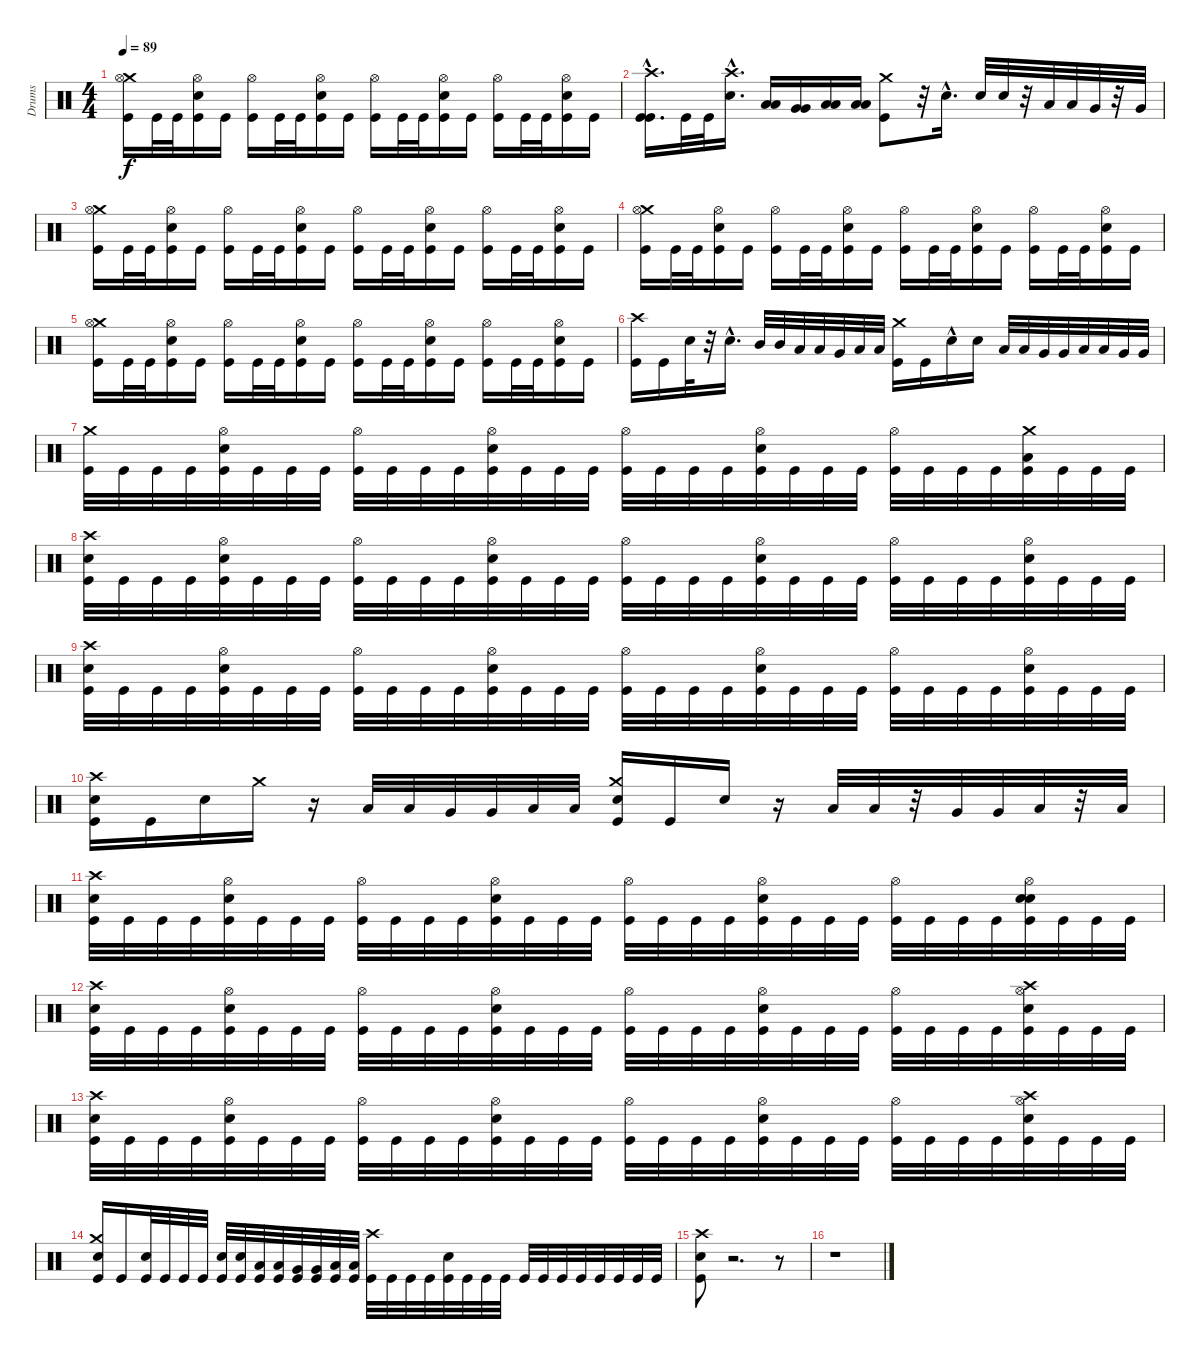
\track ("Drums" "Drums") {instrument percussion}
\staff {score}
\articulation defaults
\ts (4 4)
\tempo 89
\clef neutral
\ks c
("Kick (hit)" "Crash medium (hit)" "Hi-Hat (open)").16{dy f} "Kick (hit)".32 "Kick (hit)".32 ("Hi-Hat (open)" "Snare (hit) 2" "Kick (hit)").16 "Kick (hit)".16 ("Hi-Hat (open)" "Kick (hit)").16 "Kick (hit)".32 "Kick (hit)".32 ("Hi-Hat (open)" "Snare (hit) 2" "Kick (hit)").16 "Kick (hit)".16 ("Hi-Hat (open)" "Kick (hit)").16 "Kick (hit)".32 "Kick (hit)".32 ("Snare (hit) 2" "Hi-Hat (open)" "Kick (hit)").16 "Kick (hit)".16 ("Hi-Hat (open)" "Kick (hit)").16 "Kick (hit)".32 "Kick (hit)".32 ("Snare (hit) 2" "Hi-Hat (open)" "Kick (hit)").16 "Kick (hit)".16 |
("Kick (hit)"{hac} "Kick (hit)"{hac} "Crash high (hit)").16{d} "Kick (hit)".32 "Kick (hit)".32 ("Crash high (hit)" "Electric Snare (hit)"{hac}).16{d} ("Low Tom (hit)" "Low Tom (hit)").16 ("Very Low Tom (hit)" "Very Low Tom (hit)").16 ("Low Floor Tom (hit)" "Low Floor Tom (hit)").16 ("Low Floor Tom (hit)" "Low Floor Tom (hit)").16 ("Kick (hit)" "Crash medium (hit)").8 r.32 "Snare (hit) 2"{hac}.16{d} "Electric Snare (hit)".32 "Electric Snare (hit)".32 r.32 "Low Tom (hit)".32 "Low Tom (hit)".32 "Very Low Tom (hit)".32 r.32 "Very Low Tom (hit)".32 |
("Crash medium (hit)" "Hi-Hat (open)" "Kick (hit)").16 "Kick (hit)".32 "Kick (hit)".32 ("Hi-Hat (open)" "Snare (hit) 2" "Kick (hit)").16 "Kick (hit)".16 ("Hi-Hat (open)" "Kick (hit)").16 "Kick (hit)".32 "Kick (hit)".32 ("Hi-Hat (open)" "Snare (hit) 2" "Kick (hit)").16 "Kick (hit)".16 ("Hi-Hat (open)" "Kick (hit)").16 "Kick (hit)".32 "Kick (hit)".32 ("Snare (hit) 2" "Hi-Hat (open)" "Kick (hit)").16 "Kick (hit)".16 ("Hi-Hat (open)" "Kick (hit)").16 "Kick (hit)".32 "Kick (hit)".32 ("Snare (hit) 2" "Hi-Hat (open)" "Kick (hit)").16 "Kick (hit)".16 |
("Kick (hit)" "Crash medium (hit)" "Hi-Hat (open)").16 "Kick (hit)".32 "Kick (hit)".32 ("Hi-Hat (open)" "Snare (hit) 2" "Kick (hit)").16 "Kick (hit)".16 ("Hi-Hat (open)" "Kick (hit)").16 "Kick (hit)".32 "Kick (hit)".32 ("Hi-Hat (open)" "Snare (hit) 2" "Kick (hit)").16 "Kick (hit)".16 ("Hi-Hat (open)" "Kick (hit)").16 "Kick (hit)".32 "Kick (hit)".32 ("Snare (hit) 2" "Hi-Hat (open)" "Kick (hit)").16 "Kick (hit)".16 ("Hi-Hat (open)" "Kick (hit)").16 "Kick (hit)".32 "Kick (hit)".32 ("Snare (hit) 2" "Hi-Hat (open)" "Kick (hit)").16 "Kick (hit)".16 |
("Kick (hit)" "Crash medium (hit)" "Hi-Hat (open)").16 "Kick (hit)".32 "Kick (hit)".32 ("Hi-Hat (open)" "Snare (hit) 2" "Kick (hit)").16 "Kick (hit)".16 ("Hi-Hat (open)" "Kick (hit)").16 "Kick (hit)".32 "Kick (hit)".32 ("Hi-Hat (open)" "Snare (hit) 2" "Kick (hit)").16 "Kick (hit)".16 ("Hi-Hat (open)" "Kick (hit)").16 "Kick (hit)".32 "Kick (hit)".32 ("Snare (hit) 2" "Hi-Hat (open)" "Kick (hit)").16 "Kick (hit)".16 ("Hi-Hat (open)" "Kick (hit)").16 "Kick (hit)".32 "Kick (hit)".32 ("Snare (hit) 2" "Hi-Hat (open)" "Kick (hit)").16 "Kick (hit)".16 |
("Kick (hit)" "Crash high (hit)").16 "Kick (hit)".16 "Electric Snare (hit)".32 r.32 "Electric Snare (hit)"{hac}.16{d} "Mid Tom (hit)".32 "Mid Tom (hit)".32 "Low Tom (hit)".32 "Low Tom (hit)".32 "Very Low Tom (hit)".32 "Low Floor Tom (hit)".32 "Low Floor Tom (hit)".32 ("Kick (hit)" "Crash medium (hit)").16 "Kick (hit)".16 "Snare (hit) 2"{hac}.16 "Electric Snare (hit)".16 "Low Tom (hit)".32 "Low Tom (hit)".32 "Very Low Tom (hit)".32 "Very Low Tom (hit)".32 "Low Tom (hit)".32 "Low Tom (hit)".32 "Very Low Tom (hit)".32 "Very Low Tom (hit)".32 |
("Crash medium (hit)" "Kick (hit)").32{volume 15 balance 8} "Kick (hit)".32 "Kick (hit)".32 "Kick (hit)".32 ("Hi-Hat (open)" "Snare (hit) 2" "Kick (hit)").32 "Kick (hit)".32 "Kick (hit)".32 "Kick (hit)".32 ("Hi-Hat (open)" "Kick (hit)").32 "Kick (hit)".32 "Kick (hit)".32 "Kick (hit)".32 ("Kick (hit)" "Snare (hit) 2" "Hi-Hat (open)").32 "Kick (hit)".32 "Kick (hit)".32 "Kick (hit)".32 ("Hi-Hat (open)" "Kick (hit)").32 "Kick (hit)".32 "Kick (hit)".32 "Kick (hit)".32 ("Kick (hit)" "Hi-Hat (open)" "Snare (hit) 2").32 "Kick (hit)".32 "Kick (hit)".32 "Kick (hit)".32 ("Kick (hit)" "Hi-Hat (open)").32 "Kick (hit)".32 "Kick (hit)".32 "Kick (hit)".32 ("Crash medium (hit)" "Kick (hit)" "Low Tom (hit)").32 "Kick (hit)".32 "Kick (hit)".32 "Kick (hit)".32 |
("Crash high (hit)" "Snare (hit) 2" "Kick (hit)").32 "Kick (hit)".32 "Kick (hit)".32 "Kick (hit)".32 ("Hi-Hat (open)" "Snare (hit) 2" "Kick (hit)").32 "Kick (hit)".32 "Kick (hit)".32 "Kick (hit)".32 ("Hi-Hat (open)" "Kick (hit)").32 "Kick (hit)".32 "Kick (hit)".32 "Kick (hit)".32 ("Hi-Hat (open)" "Snare (hit) 2" "Kick (hit)").32 "Kick (hit)".32 "Kick (hit)".32 "Kick (hit)".32 ("Hi-Hat (open)" "Kick (hit)").32 "Kick (hit)".32 "Kick (hit)".32 "Kick (hit)".32 ("Hi-Hat (open)" "Snare (hit) 2" "Kick (hit)").32 "Kick (hit)".32 "Kick (hit)".32 "Kick (hit)".32 ("Hi-Hat (open)" "Kick (hit)").32 "Kick (hit)".32 "Kick (hit)".32 "Kick (hit)".32 ("Snare (hit) 2" "Hi-Hat (open)" "Kick (hit)").32 "Kick (hit)".32 "Kick (hit)".32 "Kick (hit)".32 |
("Kick (hit)" "Crash high (hit)" "Snare (hit) 2").32 "Kick (hit)".32 "Kick (hit)".32 "Kick (hit)".32 ("Kick (hit)" "Hi-Hat (open)" "Snare (hit) 2").32 "Kick (hit)".32 "Kick (hit)".32 "Kick (hit)".32 ("Kick (hit)" "Hi-Hat (open)").32 "Kick (hit)".32 "Kick (hit)".32 "Kick (hit)".32 ("Kick (hit)" "Snare (hit) 2" "Hi-Hat (open)").32 "Kick (hit)".32 "Kick (hit)".32 "Kick (hit)".32 ("Kick (hit)" "Hi-Hat (open)").32 "Kick (hit)".32 "Kick (hit)".32 "Kick (hit)".32 ("Kick (hit)" "Hi-Hat (open)" "Snare (hit) 2").32 "Kick (hit)".32 "Kick (hit)".32 "Kick (hit)".32 ("Kick (hit)" "Hi-Hat (open)").32 "Kick (hit)".32 "Kick (hit)".32 "Kick (hit)".32 ("Kick (hit)" "Hi-Hat (open)" "Snare (hit) 2").32 "Kick (hit)".32 "Kick (hit)".32 "Kick (hit)".32 |
("Kick (hit)" "Snare (hit) 2" "Crash high (hit)").16 "Kick (hit)".16 "Snare (hit) 2".16 "Crash medium (hit)".16 r.16 "Low Tom (hit)".32 "Low Tom (hit)".32 "Very Low Tom (hit)".32 "Very Low Tom (hit)".32 "Low Floor Tom (hit)".32 "Low Floor Tom (hit)".32 ("Crash medium (hit)" "Snare (hit) 2" "Kick (hit)").16 "Kick (hit)".16 "Snare (hit) 2".16 r.16 "Low Tom (hit)".32 "Low Tom (hit)".32 r.32 "Very Low Tom (hit)".32 "Very Low Tom (hit)".32 "Low Floor Tom (hit)".32 r.32 "Low Floor Tom (hit)".32 |
("Kick (hit)" "Snare (hit) 2" "Crash high (hit)").32 "Kick (hit)".32 "Kick (hit)".32 "Kick (hit)".32 ("Hi-Hat (open)" "Snare (hit) 2" "Kick (hit)").32 "Kick (hit)".32 "Kick (hit)".32 "Kick (hit)".32 ("Hi-Hat (open)" "Kick (hit)").32 "Kick (hit)".32 "Kick (hit)".32 "Kick (hit)".32 ("Snare (hit) 2" "Hi-Hat (open)" "Kick (hit)").32 "Kick (hit)".32 "Kick (hit)".32 "Kick (hit)".32 ("Hi-Hat (open)" "Kick (hit)").32 "Kick (hit)".32 "Kick (hit)".32 "Kick (hit)".32 ("Snare (hit) 2" "Hi-Hat (open)" "Kick (hit)").32 "Kick (hit)".32 "Kick (hit)".32 "Kick (hit)".32 ("Hi-Hat (open)" "Kick (hit)").32 "Kick (hit)".32 "Kick (hit)".32 "Kick (hit)".32 ("Hi-Hat (open)" "Snare (hit) 2" "Snare (hit) 2" "Kick (hit)").32 "Kick (hit)".32 "Kick (hit)".32 "Kick (hit)".32 |
("Snare (hit) 2" "Crash high (hit)" "Kick (hit)").32 "Kick (hit)".32 "Kick (hit)".32 "Kick (hit)".32 ("Hi-Hat (open)" "Snare (hit) 2" "Kick (hit)").32 "Kick (hit)".32 "Kick (hit)".32 "Kick (hit)".32 ("Hi-Hat (open)" "Kick (hit)").32 "Kick (hit)".32 "Kick (hit)".32 "Kick (hit)".32 ("Snare (hit) 2" "Hi-Hat (open)" "Kick (hit)").32 "Kick (hit)".32 "Kick (hit)".32 "Kick (hit)".32 ("Hi-Hat (open)" "Kick (hit)").32 "Kick (hit)".32 "Kick (hit)".32 "Kick (hit)".32 ("Snare (hit) 2" "Hi-Hat (open)" "Kick (hit)").32 "Kick (hit)".32 "Kick (hit)".32 "Kick (hit)".32 ("Hi-Hat (open)" "Kick (hit)").32 "Kick (hit)".32 "Kick (hit)".32 "Kick (hit)".32 ("Hi-Hat (open)" "Crash high (hit)" "Snare (hit) 2" "Kick (hit)").32 "Kick (hit)".32 "Kick (hit)".32 "Kick (hit)".32 |
("Crash high (hit)" "Snare (hit) 2" "Kick (hit)").32 "Kick (hit)".32 "Kick (hit)".32 "Kick (hit)".32 ("Hi-Hat (open)" "Snare (hit) 2" "Kick (hit)").32 "Kick (hit)".32 "Kick (hit)".32 "Kick (hit)".32 ("Hi-Hat (open)" "Kick (hit)").32 "Kick (hit)".32 "Kick (hit)".32 "Kick (hit)".32 ("Snare (hit) 2" "Hi-Hat (open)" "Kick (hit)").32 "Kick (hit)".32 "Kick (hit)".32 "Kick (hit)".32 ("Hi-Hat (open)" "Kick (hit)").32 "Kick (hit)".32 "Kick (hit)".32 "Kick (hit)".32 ("Snare (hit) 2" "Hi-Hat (open)" "Kick (hit)").32 "Kick (hit)".32 "Kick (hit)".32 "Kick (hit)".32 ("Hi-Hat (open)" "Kick (hit)").32 "Kick (hit)".32 "Kick (hit)".32 "Kick (hit)".32 ("Hi-Hat (open)" "Snare (hit) 2" "Crash high (hit)" "Kick (hit)").32 "Kick (hit)".32 "Kick (hit)".32 "Kick (hit)".32 |
("Snare (hit) 2" "Kick (hit)" "Crash medium (hit)").16 "Kick (hit)".16 ("Kick (hit)" "Snare (hit) 2").32 "Kick (hit)".32 "Kick (hit)".32 "Kick (hit)".32 ("Kick (hit)" "Electric Snare (hit)").32 ("Kick (hit)" "Electric Snare (hit)").32 ("Kick (hit)" "Low Tom (hit)").32 ("Kick (hit)" "Low Tom (hit)").32 ("Kick (hit)" "Very Low Tom (hit)").32 ("Kick (hit)" "Very Low Tom (hit)").32 ("Kick (hit)" "Low Floor Tom (hit)").32 ("Kick (hit)" "Low Floor Tom (hit)").32 ("Crash high (hit)" "Kick (hit)").32 "Kick (hit)".32 "Kick (hit)".32 "Kick (hit)".32 ("Kick (hit)" "Snare (hit) 2").32 "Kick (hit)".32 "Kick (hit)".32 "Kick (hit)".32 "Kick (hit)".32 "Kick (hit)".32 "Kick (hit)".32 "Kick (hit)".32 "Kick (hit)".32 "Kick (hit)".32 "Kick (hit)".32 "Kick (hit)".32 |
("Crash high (hit)" "Snare (hit) 2" "Kick (hit)").8{volume 15 balance 8} r.2{d} r.8 |
r.1
